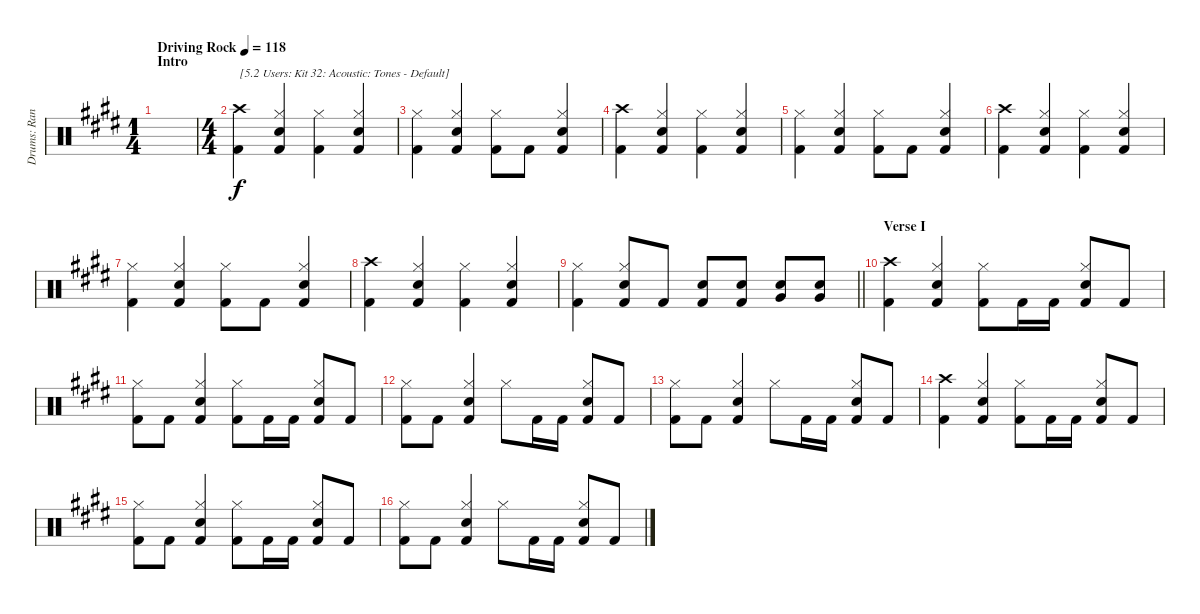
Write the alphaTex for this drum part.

\track ("Drums: Randy" "Drums: Ran") {instrument percussion}
\staff {score}
\articulation defaults
\ts (1 4)
\section ("" "Intro")
\tempo (118 "Driving Rock")
\clef neutral
\ks e
|
\ts (4 4)
("Crash high (hit)" "Kick (hit) 2").4{txt "[5.2 Users: Kit 32: Acoustic: Tones - Default]"} ("Hi-Hat (closed)" "Snare (hit) 2" "Kick (hit) 2").4 ("Hi-Hat (closed)" "Kick (hit) 2").4 ("Hi-Hat (closed)" "Snare (hit) 2" "Kick (hit) 2").4 |
("Hi-Hat (closed)" "Kick (hit) 2").4 ("Hi-Hat (closed)" "Snare (hit) 2" "Kick (hit) 2").4 ("Hi-Hat (closed)" "Kick (hit) 2").8 "Kick (hit) 2".8 ("Hi-Hat (closed)" "Snare (hit) 2" "Kick (hit) 2").4 |
("Crash high (hit)" "Kick (hit) 2").4 ("Hi-Hat (closed)" "Snare (hit) 2" "Kick (hit) 2").4 ("Hi-Hat (closed)" "Kick (hit) 2").4 ("Hi-Hat (closed)" "Snare (hit) 2" "Kick (hit) 2").4 |
("Hi-Hat (closed)" "Kick (hit) 2").4 ("Hi-Hat (closed)" "Snare (hit) 2" "Kick (hit) 2").4 ("Hi-Hat (closed)" "Kick (hit) 2").8 "Kick (hit) 2".8 ("Hi-Hat (closed)" "Snare (hit) 2" "Kick (hit) 2").4 |
("Crash high (hit)" "Kick (hit) 2").4 ("Hi-Hat (closed)" "Snare (hit) 2" "Kick (hit) 2").4 ("Hi-Hat (closed)" "Kick (hit) 2").4 ("Hi-Hat (closed)" "Snare (hit) 2" "Kick (hit) 2").4 |
("Hi-Hat (closed)" "Kick (hit) 2").4 ("Hi-Hat (closed)" "Snare (hit) 2" "Kick (hit) 2").4 ("Hi-Hat (closed)" "Kick (hit) 2").8 "Kick (hit) 2".8 ("Hi-Hat (closed)" "Snare (hit) 2" "Kick (hit) 2").4 |
("Crash high (hit)" "Kick (hit) 2").4 ("Hi-Hat (closed)" "Snare (hit) 2" "Kick (hit) 2").4 ("Hi-Hat (closed)" "Kick (hit) 2").4 ("Hi-Hat (closed)" "Snare (hit) 2" "Kick (hit) 2").4 |
\barLineRight lightlight
("Hi-Hat (closed)" "Kick (hit) 2").4 ("Hi-Hat (closed)" "Snare (hit) 2" "Kick (hit) 2").8 "Kick (hit) 2".8 ("Snare (hit) 2" "Kick (hit) 2").8 ("Snare (hit) 2" "Kick (hit) 2").8 ("Snare (hit) 2" "Very Low Tom (hit)").8 ("Snare (hit) 2" "Very Low Tom (hit)").8 |
\section ("" "Verse I")
("Crash high (hit)" "Kick (hit) 2").4 ("Hi-Hat (closed)" "Snare (hit) 2" "Kick (hit) 2").4 ("Hi-Hat (closed)" "Kick (hit) 2").8 "Kick (hit) 2".16 "Kick (hit) 2".16 ("Hi-Hat (closed)" "Snare (hit) 2" "Kick (hit) 2").8 "Kick (hit) 2".8 |
("Hi-Hat (closed)" "Kick (hit) 2").8 "Kick (hit) 2".8 ("Hi-Hat (closed)" "Snare (hit) 2" "Kick (hit) 2").4 ("Hi-Hat (closed)" "Kick (hit) 2").8 "Kick (hit) 2".16 "Kick (hit) 2".16 ("Hi-Hat (closed)" "Snare (hit) 2" "Kick (hit) 2").8 "Kick (hit) 2".8 |
("Hi-Hat (closed)" "Kick (hit) 2").8 "Kick (hit) 2".8 ("Hi-Hat (closed)" "Snare (hit) 2" "Kick (hit) 2").4 "Hi-Hat (closed)".8 "Kick (hit) 2".16 "Kick (hit) 2".16 ("Hi-Hat (closed)" "Snare (hit) 2" "Kick (hit) 2").8 "Kick (hit) 2".8 |
("Hi-Hat (closed)" "Kick (hit) 2").8 "Kick (hit) 2".8 ("Hi-Hat (closed)" "Snare (hit) 2" "Kick (hit) 2").4 "Hi-Hat (closed)".8 "Kick (hit) 2".16 "Kick (hit) 2".16 ("Hi-Hat (closed)" "Snare (hit) 2" "Kick (hit) 2").8 "Kick (hit) 2".8 |
("Crash high (hit)" "Kick (hit) 2").4 ("Hi-Hat (closed)" "Snare (hit) 2" "Kick (hit) 2").4 ("Hi-Hat (closed)" "Kick (hit) 2").8 "Kick (hit) 2".16 "Kick (hit) 2".16 ("Hi-Hat (closed)" "Snare (hit) 2" "Kick (hit) 2").8 "Kick (hit) 2".8 |
("Hi-Hat (closed)" "Kick (hit) 2").8 "Kick (hit) 2".8 ("Hi-Hat (closed)" "Snare (hit) 2" "Kick (hit) 2").4 ("Hi-Hat (closed)" "Kick (hit) 2").8 "Kick (hit) 2".16 "Kick (hit) 2".16 ("Hi-Hat (closed)" "Snare (hit) 2" "Kick (hit) 2").8 "Kick (hit) 2".8 |
("Hi-Hat (closed)" "Kick (hit) 2").8 "Kick (hit) 2".8 ("Hi-Hat (closed)" "Snare (hit) 2" "Kick (hit) 2").4 "Hi-Hat (closed)".8 "Kick (hit) 2".16 "Kick (hit) 2".16 ("Hi-Hat (closed)" "Snare (hit) 2" "Kick (hit) 2").8 "Kick (hit) 2".8
